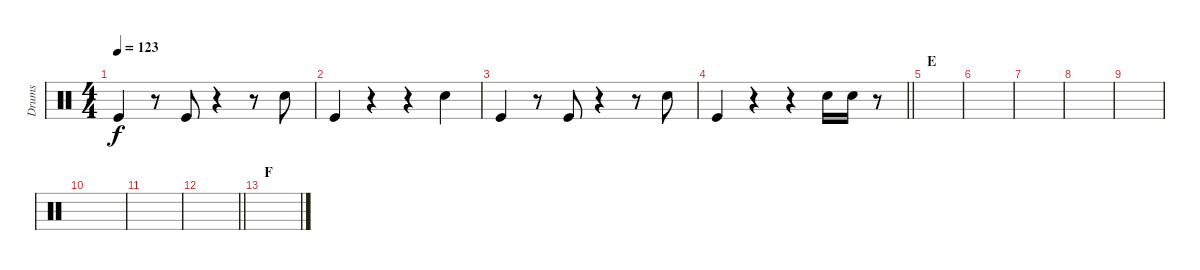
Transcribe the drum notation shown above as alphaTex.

\track ("Drums" "Drums") {instrument percussion}
\staff {score}
\articulation defaults
\ts (4 4)
\tempo 123
\clef neutral
\ks c "Kick (hit)".4{dy f}
r.8 "Kick (hit)".8 r.4 r.8 "Electric Snare (hit)".8 |
"Kick (hit)".4 r.4 r.4 "Electric Snare (hit)".4 |
"Kick (hit)".4 r.8 "Kick (hit)".8 r.4 r.8 "Electric Snare (hit)".8 |
\barLineRight lightlight "Kick (hit)".4
r.4 r.4 "Electric Snare (hit)".16 "Electric Snare (hit)".16 r.8 |
\section ("" "E")
|
|
|
|
|
|
|
\barLineRight lightlight
|
\section ("" "F")
